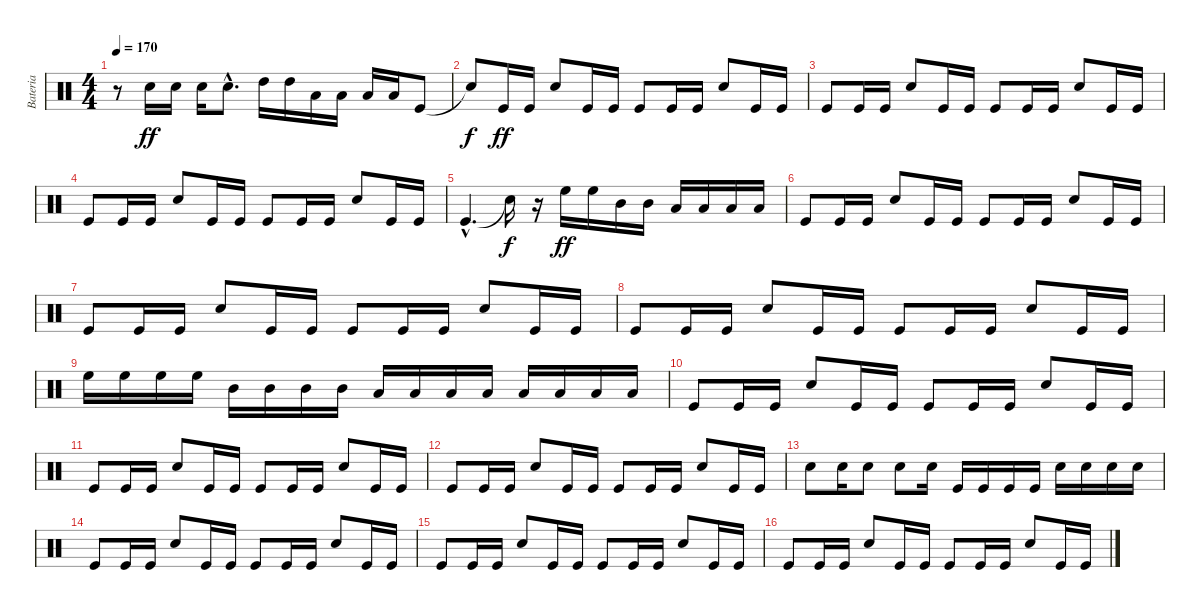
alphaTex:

\track ("Bateria" "Bateria") {instrument percussion}
\staff {score}
\articulation defaults
\ts (4 4)
\tempo 170
\clef neutral
\ks c
r.8{dy ff} "Electric Snare (hit)".16 "Electric Snare (hit)".16 "Electric Snare (hit)".16 "Electric Snare (hit)"{hac}.8{d} "High Tom (hit)".16 "High Tom (hit)".16 "Low Tom (hit)".16 "Low Tom (hit)".16 "Low Floor Tom (hit)".16 "Low Floor Tom (hit)".16 "Kick (hit)".8 |
"Snare (hit)"{t}.8{dy f} "Kick (hit)".16{dy ff} "Kick (hit)".16 "Electric Snare (hit)".8 "Kick (hit)".16 "Kick (hit)".16 "Kick (hit)".8 "Kick (hit)".16 "Kick (hit)".16 "Electric Snare (hit)".8 "Kick (hit)".16 "Kick (hit)".16 |
"Kick (hit)".8 "Kick (hit)".16 "Kick (hit)".16 "Electric Snare (hit)".8 "Kick (hit)".16 "Kick (hit)".16 "Kick (hit)".8 "Kick (hit)".16 "Kick (hit)".16 "Electric Snare (hit)".8 "Kick (hit)".16 "Kick (hit)".16 |
"Kick (hit)".8 "Kick (hit)".16 "Kick (hit)".16 "Electric Snare (hit)".8 "Kick (hit)".16 "Kick (hit)".16 "Kick (hit)".8 "Kick (hit)".16 "Kick (hit)".16 "Electric Snare (hit)".8 "Kick (hit)".16 "Kick (hit)".16 |
"Kick (hit)"{hac}.4{d} "Snare (hit)"{t}.16{dy f} r.16 "High Floor Tom (hit)".16{dy ff} "High Floor Tom (hit)".16 "Mid Tom (hit)".16 "Mid Tom (hit)".16 "Low Tom (hit)".16 "Low Tom (hit)".16 "Low Floor Tom (hit)".16 "Low Floor Tom (hit)".16 |
"Kick (hit)".8 "Kick (hit)".16 "Kick (hit)".16 "Electric Snare (hit)".8 "Kick (hit)".16 "Kick (hit)".16 "Kick (hit)".8 "Kick (hit)".16 "Kick (hit)".16 "Electric Snare (hit)".8 "Kick (hit)".16 "Kick (hit)".16 |
"Kick (hit)".8 "Kick (hit)".16 "Kick (hit)".16 "Electric Snare (hit)".8 "Kick (hit)".16 "Kick (hit)".16 "Kick (hit)".8 "Kick (hit)".16 "Kick (hit)".16 "Electric Snare (hit)".8 "Kick (hit)".16 "Kick (hit)".16 |
"Kick (hit)".8 "Kick (hit)".16 "Kick (hit)".16 "Electric Snare (hit)".8 "Kick (hit)".16 "Kick (hit)".16 "Kick (hit)".8 "Kick (hit)".16 "Kick (hit)".16 "Electric Snare (hit)".8 "Kick (hit)".16 "Kick (hit)".16 |
"High Floor Tom (hit)".16 "High Floor Tom (hit)".16 "High Floor Tom (hit)".16 "High Floor Tom (hit)".16 "Mid Tom (hit)".16 "Mid Tom (hit)".16 "Mid Tom (hit)".16 "Mid Tom (hit)".16 "Low Tom (hit)".16 "Low Tom (hit)".16 "Low Tom (hit)".16 "Low Tom (hit)".16 "Low Floor Tom (hit)".16 "Low Floor Tom (hit)".16 "Low Floor Tom (hit)".16 "Low Floor Tom (hit)".16 |
"Kick (hit)".8 "Kick (hit)".16 "Kick (hit)".16 "Electric Snare (hit)".8 "Kick (hit)".16 "Kick (hit)".16 "Kick (hit)".8 "Kick (hit)".16 "Kick (hit)".16 "Electric Snare (hit)".8 "Kick (hit)".16 "Kick (hit)".16 |
"Kick (hit)".8 "Kick (hit)".16 "Kick (hit)".16 "Electric Snare (hit)".8 "Kick (hit)".16 "Kick (hit)".16 "Kick (hit)".8 "Kick (hit)".16 "Kick (hit)".16 "Electric Snare (hit)".8 "Kick (hit)".16 "Kick (hit)".16 |
"Kick (hit)".8 "Kick (hit)".16 "Kick (hit)".16 "Electric Snare (hit)".8 "Kick (hit)".16 "Kick (hit)".16 "Kick (hit)".8 "Kick (hit)".16 "Kick (hit)".16 "Electric Snare (hit)".8 "Kick (hit)".16 "Kick (hit)".16 |
"Electric Snare (hit)".8 "Electric Snare (hit)".16 "Electric Snare (hit)".8 "Electric Snare (hit)".8 "Electric Snare (hit)".16 "Kick (hit)".16 "Kick (hit)".16 "Kick (hit)".16 "Kick (hit)".16 "Electric Snare (hit)".16 "Electric Snare (hit)".16 "Electric Snare (hit)".16 "Electric Snare (hit)".16 |
"Kick (hit)".8 "Kick (hit)".16 "Kick (hit)".16 "Electric Snare (hit)".8 "Kick (hit)".16 "Kick (hit)".16 "Kick (hit)".8 "Kick (hit)".16 "Kick (hit)".16 "Electric Snare (hit)".8 "Kick (hit)".16 "Kick (hit)".16 |
"Kick (hit)".8 "Kick (hit)".16 "Kick (hit)".16 "Electric Snare (hit)".8 "Kick (hit)".16 "Kick (hit)".16 "Kick (hit)".8 "Kick (hit)".16 "Kick (hit)".16 "Electric Snare (hit)".8 "Kick (hit)".16 "Kick (hit)".16 |
"Kick (hit)".8 "Kick (hit)".16 "Kick (hit)".16 "Electric Snare (hit)".8 "Kick (hit)".16 "Kick (hit)".16 "Kick (hit)".8 "Kick (hit)".16 "Kick (hit)".16 "Electric Snare (hit)".8 "Kick (hit)".16 "Kick (hit)".16
